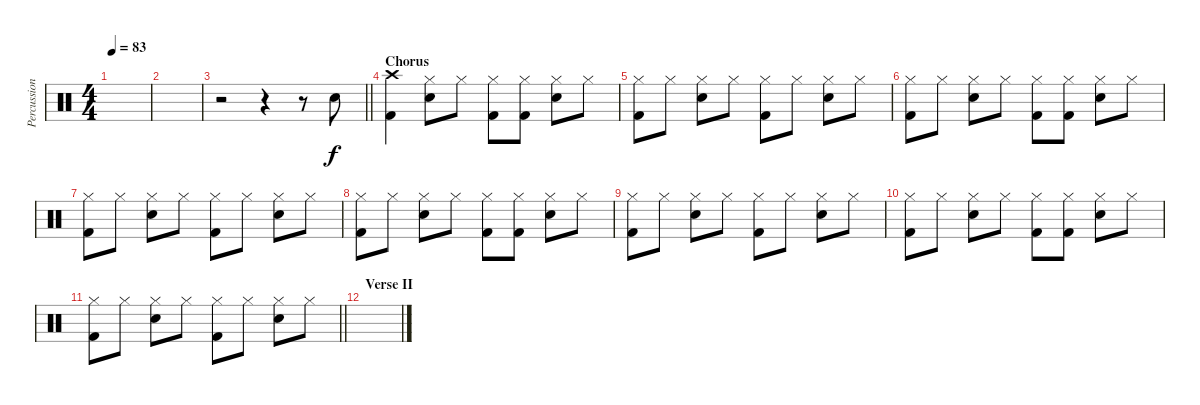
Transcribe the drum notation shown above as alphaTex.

\track ("Percussion" "Percussion") {instrument percussion}
\staff {score}
\articulation defaults
\ts (4 4)
\tempo 83
\clef neutral
\ks c
|
|
\barLineRight lightlight
r.2 r.4 r.8 "Snare (hit) 2".8 |
\section ("" "Chorus")
("Crash high (hit)" "Kick (hit) 2").4 ("Hi-Hat (closed)" "Snare (hit) 2").8 "Hi-Hat (closed)".8 ("Hi-Hat (closed)" "Kick (hit) 2").8 ("Hi-Hat (closed)" "Kick (hit) 2").8 ("Hi-Hat (closed)" "Snare (hit) 2").8 "Hi-Hat (closed)".8 |
("Hi-Hat (closed)" "Kick (hit) 2").8 "Hi-Hat (closed)".8 ("Hi-Hat (closed)" "Snare (hit) 2").8 "Hi-Hat (closed)".8 ("Hi-Hat (closed)" "Kick (hit) 2").8 "Hi-Hat (closed)".8 ("Hi-Hat (closed)" "Snare (hit) 2").8 "Hi-Hat (closed)".8 |
("Hi-Hat (closed)" "Kick (hit) 2").8 "Hi-Hat (closed)".8 ("Hi-Hat (closed)" "Snare (hit) 2").8 "Hi-Hat (closed)".8 ("Hi-Hat (closed)" "Kick (hit) 2").8 ("Hi-Hat (closed)" "Kick (hit) 2").8 ("Hi-Hat (closed)" "Snare (hit) 2").8 "Hi-Hat (closed)".8 |
("Hi-Hat (closed)" "Kick (hit) 2").8 "Hi-Hat (closed)".8 ("Hi-Hat (closed)" "Snare (hit) 2").8 "Hi-Hat (closed)".8 ("Hi-Hat (closed)" "Kick (hit) 2").8 "Hi-Hat (closed)".8 ("Hi-Hat (closed)" "Snare (hit) 2").8 "Hi-Hat (closed)".8 |
("Hi-Hat (closed)" "Kick (hit) 2").8 "Hi-Hat (closed)".8 ("Hi-Hat (closed)" "Snare (hit) 2").8 "Hi-Hat (closed)".8 ("Hi-Hat (closed)" "Kick (hit) 2").8 ("Hi-Hat (closed)" "Kick (hit) 2").8 ("Hi-Hat (closed)" "Snare (hit) 2").8 "Hi-Hat (closed)".8 |
("Hi-Hat (closed)" "Kick (hit) 2").8 "Hi-Hat (closed)".8 ("Hi-Hat (closed)" "Snare (hit) 2").8 "Hi-Hat (closed)".8 ("Hi-Hat (closed)" "Kick (hit) 2").8 "Hi-Hat (closed)".8 ("Hi-Hat (closed)" "Snare (hit) 2").8 "Hi-Hat (closed)".8 |
("Hi-Hat (closed)" "Kick (hit) 2").8 "Hi-Hat (closed)".8 ("Hi-Hat (closed)" "Snare (hit) 2").8 "Hi-Hat (closed)".8 ("Hi-Hat (closed)" "Kick (hit) 2").8 ("Hi-Hat (closed)" "Kick (hit) 2").8 ("Hi-Hat (closed)" "Snare (hit) 2").8 "Hi-Hat (closed)".8 |
\barLineRight lightlight
("Hi-Hat (closed)" "Kick (hit) 2").8 "Hi-Hat (closed)".8 ("Hi-Hat (closed)" "Snare (hit) 2").8 "Hi-Hat (closed)".8 ("Hi-Hat (closed)" "Kick (hit) 2").8 "Hi-Hat (closed)".8 ("Hi-Hat (closed)" "Snare (hit) 2").8 "Hi-Hat (closed)".8 |
\section ("" "Verse II")
